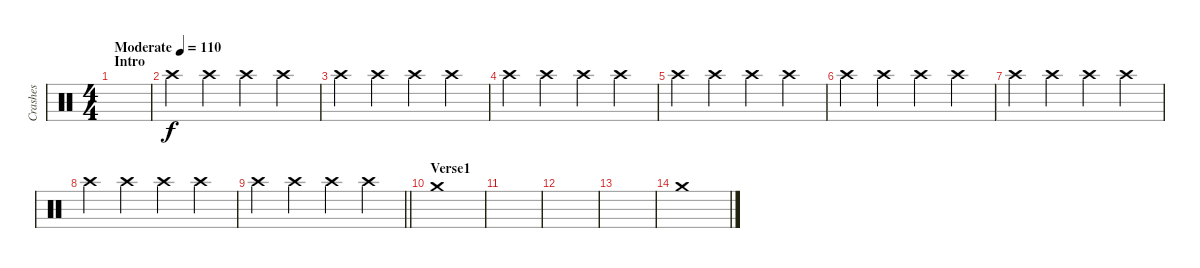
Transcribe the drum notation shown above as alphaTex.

\track ("Crashes" "Crashes") {instrument percussion}
\staff {score}
\articulation defaults
\ts (4 4)
\section ("" "Intro")
\tempo (110 "Moderate")
\clef neutral
\ks c
|
"Crash high (hit)".4 "Crash high (hit)".4 "Crash high (hit)".4 "Crash high (hit)".4 |
"Crash high (hit)".4 "Crash high (hit)".4 "Crash high (hit)".4 "Crash high (hit)".4 |
"Crash high (hit)".4 "Crash high (hit)".4 "Crash high (hit)".4 "Crash high (hit)".4 |
"Crash high (hit)".4 "Crash high (hit)".4 "Crash high (hit)".4 "Crash high (hit)".4 |
"Crash high (hit)".4 "Crash high (hit)".4 "Crash high (hit)".4 "Crash high (hit)".4 |
"Crash high (hit)".4 "Crash high (hit)".4 "Crash high (hit)".4 "Crash high (hit)".4 |
"Crash high (hit)".4 "Crash high (hit)".4 "Crash high (hit)".4 "Crash high (hit)".4 |
\barLineRight lightlight "Crash high (hit)".4 "Crash high (hit)".4 "Crash high (hit)".4 "Crash high (hit)".4
|
\section ("" "Verse1")
"Crash medium (hit)".1 |
|
|
|
"Crash medium (hit)".1
